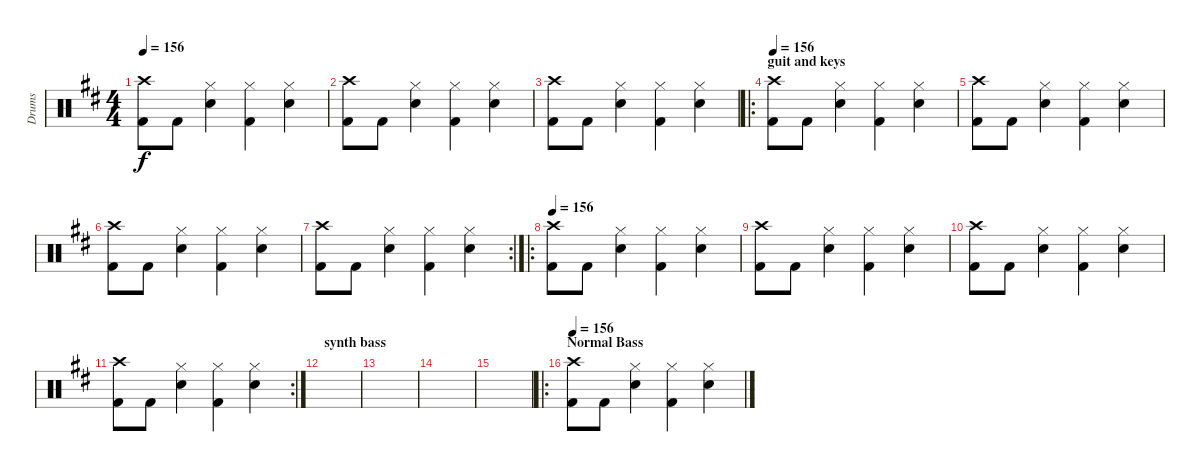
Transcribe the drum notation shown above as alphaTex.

\track ("Drums" "Drums") {instrument percussion}
\staff {score}
\articulation defaults
\ts (4 4)
\tempo 156
\clef neutral
\ks bminor
("Crash high (hit)" "Kick (hit) 2").8{dy f} "Kick (hit) 2".8 ("Hi-Hat (closed)" "Electric Snare (hit)").4 ("Hi-Hat (closed)" "Kick (hit) 2").4 ("Hi-Hat (closed)" "Electric Snare (hit)").4 |
("Crash high (hit)" "Kick (hit) 2").8 "Kick (hit) 2".8 ("Hi-Hat (closed)" "Electric Snare (hit)").4 ("Hi-Hat (closed)" "Kick (hit) 2").4 ("Hi-Hat (closed)" "Electric Snare (hit)").4 |
("Crash high (hit)" "Kick (hit) 2").8 "Kick (hit) 2".8 ("Hi-Hat (closed)" "Electric Snare (hit)").4 ("Hi-Hat (closed)" "Kick (hit) 2").4 ("Hi-Hat (closed)" "Electric Snare (hit)").4 |
\ro
\section ("" "guit and keys")
\tempo 156
("Crash high (hit)" "Kick (hit) 2").8 "Kick (hit) 2".8 ("Hi-Hat (closed)" "Electric Snare (hit)").4 ("Hi-Hat (closed)" "Kick (hit) 2").4 ("Hi-Hat (closed)" "Electric Snare (hit)").4 |
("Crash high (hit)" "Kick (hit) 2").8 "Kick (hit) 2".8 ("Hi-Hat (closed)" "Electric Snare (hit)").4 ("Hi-Hat (closed)" "Kick (hit) 2").4 ("Hi-Hat (closed)" "Electric Snare (hit)").4 |
("Crash high (hit)" "Kick (hit) 2").8 "Kick (hit) 2".8 ("Hi-Hat (closed)" "Electric Snare (hit)").4 ("Hi-Hat (closed)" "Kick (hit) 2").4 ("Hi-Hat (closed)" "Electric Snare (hit)").4 |
\rc 2
("Crash high (hit)" "Kick (hit) 2").8 "Kick (hit) 2".8 ("Hi-Hat (closed)" "Electric Snare (hit)").4 ("Hi-Hat (closed)" "Kick (hit) 2").4 ("Hi-Hat (closed)" "Electric Snare (hit)").4 |
\ro
\tempo 156
("Crash high (hit)" "Kick (hit) 2").8 "Kick (hit) 2".8 ("Hi-Hat (closed)" "Electric Snare (hit)").4 ("Hi-Hat (closed)" "Kick (hit) 2").4 ("Hi-Hat (closed)" "Electric Snare (hit)").4 |
("Crash high (hit)" "Kick (hit) 2").8 "Kick (hit) 2".8 ("Hi-Hat (closed)" "Electric Snare (hit)").4 ("Hi-Hat (closed)" "Kick (hit) 2").4 ("Hi-Hat (closed)" "Electric Snare (hit)").4 |
("Crash high (hit)" "Kick (hit) 2").8 "Kick (hit) 2".8 ("Hi-Hat (closed)" "Electric Snare (hit)").4 ("Hi-Hat (closed)" "Kick (hit) 2").4 ("Hi-Hat (closed)" "Electric Snare (hit)").4 |
\rc 2
("Crash high (hit)" "Kick (hit) 2").8 "Kick (hit) 2".8 ("Hi-Hat (closed)" "Electric Snare (hit)").4 ("Hi-Hat (closed)" "Kick (hit) 2").4 ("Hi-Hat (closed)" "Electric Snare (hit)").4 |
\section ("" "synth bass")
|
|
|
|
\ro
\section ("" "Normal Bass")
\tempo 156
("Crash high (hit)" "Kick (hit) 2").8 "Kick (hit) 2".8 ("Hi-Hat (closed)" "Electric Snare (hit)").4 ("Hi-Hat (closed)" "Kick (hit) 2").4 ("Hi-Hat (closed)" "Electric Snare (hit)").4
